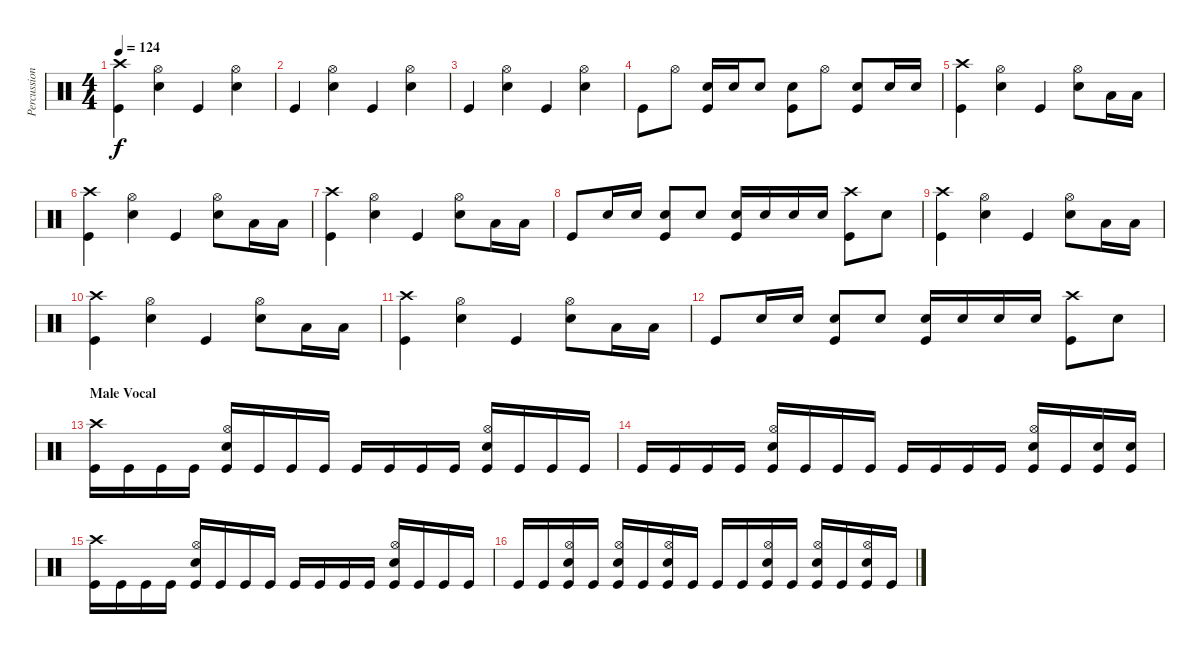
\track ("Percussion" "Percussion") {instrument percussion}
\staff {score}
\articulation defaults
\ts (4 4)
\tempo 124
\clef neutral
\ks c
("Crash high (hit)" "Kick (hit)").4{dy f} ("Hi-Hat (open)" "Snare (hit) 2").4 "Kick (hit)".4 ("Hi-Hat (open)" "Snare (hit) 2").4 |
"Kick (hit)".4 ("Hi-Hat (open)" "Snare (hit) 2").4 "Kick (hit)".4 ("Hi-Hat (open)" "Snare (hit) 2").4 |
"Kick (hit)".4 ("Hi-Hat (open)" "Snare (hit) 2").4 "Kick (hit)".4 ("Hi-Hat (open)" "Snare (hit) 2").4 |
"Kick (hit)".8 "Hi-Hat (open)".8 ("Snare (hit) 2" "Kick (hit)").16 "Snare (hit) 2".16 "Snare (hit) 2".8 ("Snare (hit) 2" "Kick (hit)").8 "Hi-Hat (open)".8 ("Snare (hit) 2" "Kick (hit)").8 "Snare (hit) 2".16 "Snare (hit) 2".16 |
("Crash high (hit)" "Kick (hit)").4 ("Hi-Hat (open)" "Snare (hit) 2").4 "Kick (hit)".4 ("Hi-Hat (open)" "Snare (hit) 2").8 "Low Tom (hit)".16 "Low Tom (hit)".16 |
("Crash high (hit)" "Kick (hit)").4 ("Hi-Hat (open)" "Snare (hit) 2").4 "Kick (hit)".4 ("Hi-Hat (open)" "Snare (hit) 2").8 "Low Tom (hit)".16 "Low Tom (hit)".16 |
("Crash high (hit)" "Kick (hit)").4 ("Hi-Hat (open)" "Snare (hit) 2").4 "Kick (hit)".4 ("Hi-Hat (open)" "Snare (hit) 2").8 "Low Tom (hit)".16 "Low Tom (hit)".16 |
"Kick (hit)".8 "Snare (hit) 2".16 "Snare (hit) 2".16 ("Snare (hit) 2" "Kick (hit)").8 "Snare (hit) 2".8 ("Snare (hit) 2" "Kick (hit)").16 "Snare (hit) 2".16 "Snare (hit) 2".16 "Snare (hit) 2".16 ("Crash high (hit)" "Kick (hit)").8 "Snare (hit) 2".8 |
("Crash high (hit)" "Kick (hit)").4 ("Hi-Hat (open)" "Snare (hit) 2").4 "Kick (hit)".4 ("Hi-Hat (open)" "Snare (hit) 2").8 "Low Tom (hit)".16 "Low Tom (hit)".16 |
("Crash high (hit)" "Kick (hit)").4 ("Hi-Hat (open)" "Snare (hit) 2").4 "Kick (hit)".4 ("Hi-Hat (open)" "Snare (hit) 2").8 "Low Tom (hit)".16 "Low Tom (hit)".16 |
("Crash high (hit)" "Kick (hit)").4 ("Hi-Hat (open)" "Snare (hit) 2").4 "Kick (hit)".4 ("Hi-Hat (open)" "Snare (hit) 2").8 "Low Tom (hit)".16 "Low Tom (hit)".16 |
"Kick (hit)".8 "Snare (hit) 2".16 "Snare (hit) 2".16 ("Snare (hit) 2" "Kick (hit)").8 "Snare (hit) 2".8 ("Snare (hit) 2" "Kick (hit)").16 "Snare (hit) 2".16 "Snare (hit) 2".16 "Snare (hit) 2".16 ("Crash high (hit)" "Kick (hit)").8 "Snare (hit) 2".8 |
\section ("" "Male Vocal")
("Crash high (hit)" "Kick (hit)").16 "Kick (hit)".16 "Kick (hit)".16 "Kick (hit)".16 ("Hi-Hat (open)" "Snare (hit) 2" "Kick (hit)").16 "Kick (hit)".16 "Kick (hit)".16 "Kick (hit)".16 "Kick (hit)".16 "Kick (hit)".16 "Kick (hit)".16 "Kick (hit)".16 ("Hi-Hat (open)" "Snare (hit) 2" "Kick (hit)").16 "Kick (hit)".16 "Kick (hit)".16 "Kick (hit)".16 |
"Kick (hit)".16 "Kick (hit)".16 "Kick (hit)".16 "Kick (hit)".16 ("Hi-Hat (open)" "Snare (hit) 2" "Kick (hit)").16 "Kick (hit)".16 "Kick (hit)".16 "Kick (hit)".16 "Kick (hit)".16 "Kick (hit)".16 "Kick (hit)".16 "Kick (hit)".16 ("Hi-Hat (open)" "Snare (hit) 2" "Kick (hit)").16 "Kick (hit)".16 ("Snare (hit) 2" "Kick (hit)").16 ("Snare (hit) 2" "Kick (hit)").16 |
("Crash high (hit)" "Kick (hit)").16 "Kick (hit)".16 "Kick (hit)".16 "Kick (hit)".16 ("Hi-Hat (open)" "Snare (hit) 2" "Kick (hit)").16 "Kick (hit)".16 "Kick (hit)".16 "Kick (hit)".16 "Kick (hit)".16 "Kick (hit)".16 "Kick (hit)".16 "Kick (hit)".16 ("Hi-Hat (open)" "Snare (hit) 2" "Kick (hit)").16 "Kick (hit)".16 "Kick (hit)".16 "Kick (hit)".16 |
"Kick (hit)".16 "Kick (hit)".16 ("Hi-Hat (open)" "Snare (hit) 2" "Kick (hit)").16 "Kick (hit)".16 ("Hi-Hat (open)" "Snare (hit) 2" "Kick (hit)").16 "Kick (hit)".16 ("Hi-Hat (open)" "Snare (hit) 2" "Kick (hit)").16 "Kick (hit)".16 "Kick (hit)".16 "Kick (hit)".16 ("Hi-Hat (open)" "Snare (hit) 2" "Kick (hit)").16 "Kick (hit)".16 ("Hi-Hat (open)" "Snare (hit) 2" "Kick (hit)").16 "Kick (hit)".16 ("Hi-Hat (open)" "Snare (hit) 2" "Kick (hit)").16 "Kick (hit)".16
